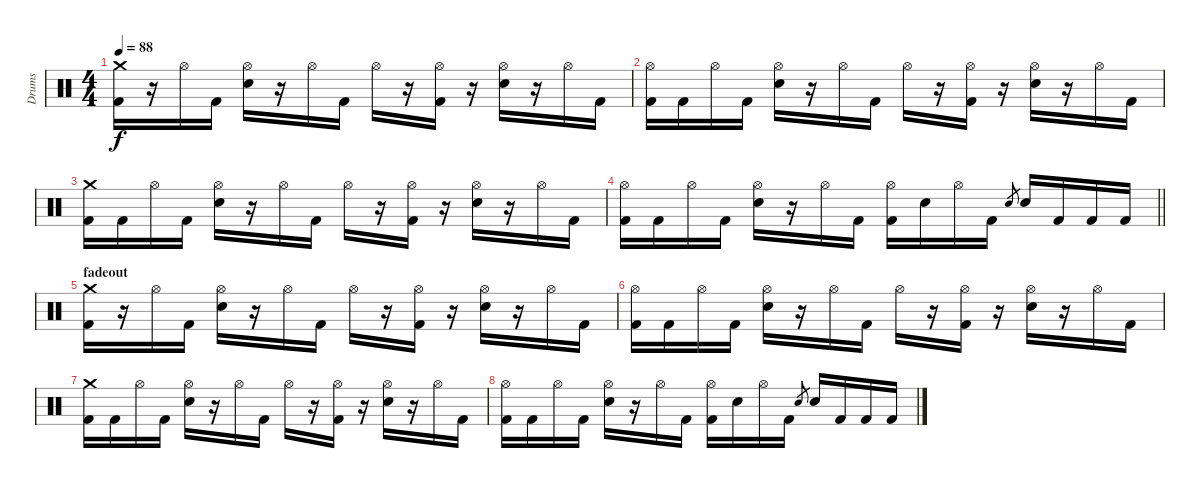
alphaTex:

\track ("Drums" "Drums") {instrument percussion}
\staff {score}
\articulation defaults
\ts (4 4)
\tempo 88
\clef neutral
\ks c
("Crash medium (hit)" "Kick (hit) 2").16{dy f} r.16 "Hi-Hat (open)".16 "Kick (hit) 2".16 ("Hi-Hat (open)" "Snare (hit) 2").16 r.16 "Hi-Hat (open)".16 "Kick (hit) 2".16 "Hi-Hat (open)".16 r.16 ("Hi-Hat (open)" "Kick (hit) 2").16 r.16 ("Hi-Hat (open)" "Snare (hit) 2").16 r.16 "Hi-Hat (open)".16 "Kick (hit) 2".16 |
("Hi-Hat (open)" "Kick (hit) 2").16 "Kick (hit) 2".16 "Hi-Hat (open)".16 "Kick (hit) 2".16 ("Hi-Hat (open)" "Snare (hit) 2").16 r.16 "Hi-Hat (open)".16 "Kick (hit) 2".16 "Hi-Hat (open)".16 r.16 ("Hi-Hat (open)" "Kick (hit) 2").16 r.16 ("Hi-Hat (open)" "Snare (hit) 2").16 r.16 "Hi-Hat (open)".16 "Kick (hit) 2".16 |
("Crash medium (hit)" "Kick (hit) 2").16 "Kick (hit) 2".16 "Hi-Hat (open)".16 "Kick (hit) 2".16 ("Hi-Hat (open)" "Snare (hit) 2").16 r.16 "Hi-Hat (open)".16 "Kick (hit) 2".16 "Hi-Hat (open)".16 r.16 ("Hi-Hat (open)" "Kick (hit) 2").16 r.16 ("Hi-Hat (open)" "Snare (hit) 2").16 r.16 "Hi-Hat (open)".16 "Kick (hit) 2".16 |
\barLineRight lightlight
("Hi-Hat (open)" "Kick (hit) 2").16 "Kick (hit) 2".16 "Hi-Hat (open)".16 "Kick (hit) 2".16 ("Hi-Hat (open)" "Snare (hit) 2").16 r.16 "Hi-Hat (open)".16 "Kick (hit) 2".16 ("Hi-Hat (open)" "Kick (hit) 2").16 "Snare (hit) 2".16 "Hi-Hat (open)".16 "Kick (hit) 2".16 "Snare (hit) 2".8{gr} "Snare (hit) 2".16 "Kick (hit) 2".16 "Kick (hit) 2".16 "Kick (hit) 2".16 |
\section ("" "fadeout")
("Crash medium (hit)" "Kick (hit) 2").16{volume 0} r.16 "Hi-Hat (open)".16 "Kick (hit) 2".16 ("Hi-Hat (open)" "Snare (hit) 2").16 r.16 "Hi-Hat (open)".16 "Kick (hit) 2".16 "Hi-Hat (open)".16 r.16 ("Hi-Hat (open)" "Kick (hit) 2").16 r.16 ("Hi-Hat (open)" "Snare (hit) 2").16 r.16 "Hi-Hat (open)".16 "Kick (hit) 2".16 |
("Hi-Hat (open)" "Kick (hit) 2").16 "Kick (hit) 2".16 "Hi-Hat (open)".16 "Kick (hit) 2".16 ("Hi-Hat (open)" "Snare (hit) 2").16 r.16 "Hi-Hat (open)".16 "Kick (hit) 2".16 "Hi-Hat (open)".16 r.16 ("Hi-Hat (open)" "Kick (hit) 2").16 r.16 ("Hi-Hat (open)" "Snare (hit) 2").16 r.16 "Hi-Hat (open)".16 "Kick (hit) 2".16 |
("Crash medium (hit)" "Kick (hit) 2").16 "Kick (hit) 2".16 "Hi-Hat (open)".16 "Kick (hit) 2".16 ("Hi-Hat (open)" "Snare (hit) 2").16 r.16 "Hi-Hat (open)".16 "Kick (hit) 2".16 "Hi-Hat (open)".16 r.16 ("Hi-Hat (open)" "Kick (hit) 2").16 r.16 ("Hi-Hat (open)" "Snare (hit) 2").16 r.16 "Hi-Hat (open)".16 "Kick (hit) 2".16 |
("Hi-Hat (open)" "Kick (hit) 2").16 "Kick (hit) 2".16 "Hi-Hat (open)".16 "Kick (hit) 2".16 ("Hi-Hat (open)" "Snare (hit) 2").16 r.16 "Hi-Hat (open)".16 "Kick (hit) 2".16 ("Hi-Hat (open)" "Kick (hit) 2").16 "Snare (hit) 2".16 "Hi-Hat (open)".16 "Kick (hit) 2".16 "Snare (hit) 2".8{gr} "Snare (hit) 2".16 "Kick (hit) 2".16 "Kick (hit) 2".16 "Kick (hit) 2".16
